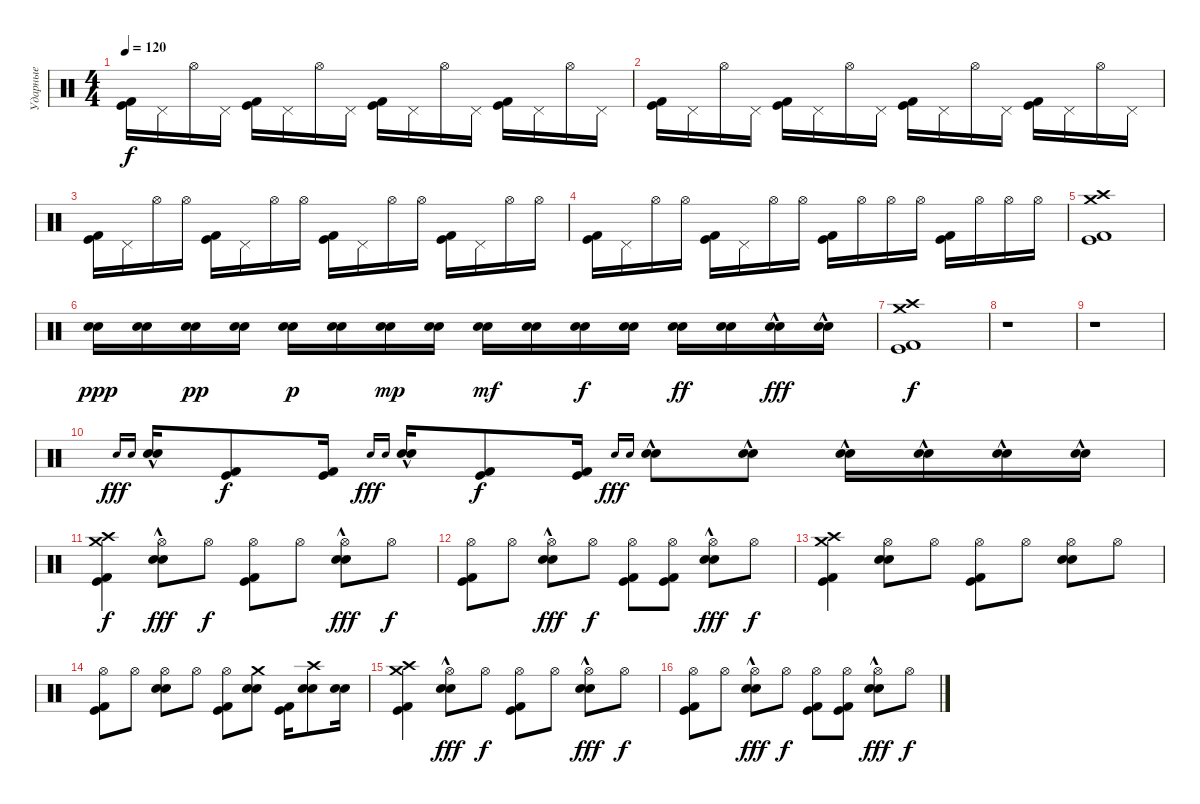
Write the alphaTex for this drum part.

\track ("Ударные" "Ударные") {instrument percussion}
\staff {score}
\articulation defaults
\ts (4 4)
\tempo 120
\clef neutral
\ks c
("Kick (hit)" "Kick (hit) 2").16{dy f} "Pedal Hi-Hat (hit)".16 "Hi-Hat (open)".16 "Pedal Hi-Hat (hit)".16 ("Kick (hit)" "Kick (hit) 2").16 "Pedal Hi-Hat (hit)".16 "Hi-Hat (open)".16 "Pedal Hi-Hat (hit)".16 ("Kick (hit)" "Kick (hit) 2").16 "Pedal Hi-Hat (hit)".16 "Hi-Hat (open)".16 "Pedal Hi-Hat (hit)".16 ("Kick (hit)" "Kick (hit) 2").16 "Pedal Hi-Hat (hit)".16 "Hi-Hat (open)".16 "Pedal Hi-Hat (hit)".16 |
("Kick (hit)" "Kick (hit) 2").16 "Pedal Hi-Hat (hit)".16 "Hi-Hat (open)".16 "Pedal Hi-Hat (hit)".16 ("Kick (hit)" "Kick (hit) 2").16 "Pedal Hi-Hat (hit)".16 "Hi-Hat (open)".16 "Pedal Hi-Hat (hit)".16 ("Kick (hit)" "Kick (hit) 2").16 "Pedal Hi-Hat (hit)".16 "Hi-Hat (open)".16 "Pedal Hi-Hat (hit)".16 ("Kick (hit)" "Kick (hit) 2").16 "Pedal Hi-Hat (hit)".16 "Hi-Hat (open)".16 "Pedal Hi-Hat (hit)".16 |
("Kick (hit)" "Kick (hit) 2").16 "Pedal Hi-Hat (hit)".16 "Hi-Hat (open)".16 "Hi-Hat (open)".16 ("Kick (hit)" "Kick (hit) 2").16 "Pedal Hi-Hat (hit)".16 "Hi-Hat (open)".16 "Hi-Hat (open)".16 ("Kick (hit)" "Kick (hit) 2").16 "Pedal Hi-Hat (hit)".16 "Hi-Hat (open)".16 "Hi-Hat (open)".16 ("Kick (hit)" "Kick (hit) 2").16 "Pedal Hi-Hat (hit)".16 "Hi-Hat (open)".16 "Hi-Hat (open)".16 |
("Kick (hit)" "Kick (hit) 2").16 "Pedal Hi-Hat (hit)".16 "Hi-Hat (open)".16 "Hi-Hat (open)".16 ("Kick (hit)" "Kick (hit) 2").16 "Pedal Hi-Hat (hit)".16 "Hi-Hat (open)".16 "Hi-Hat (open)".16 ("Kick (hit)" "Kick (hit) 2").16 "Hi-Hat (open)".16 "Hi-Hat (open)".16 "Hi-Hat (open)".16 ("Kick (hit)" "Kick (hit) 2").16 "Hi-Hat (open)".16 "Hi-Hat (open)".16 "Hi-Hat (open)".16 |
("Crash high (hit)" "Kick (hit)" "Kick (hit) 2" "Crash medium (hit)").1 |
("Snare (hit) 2" "Electric Snare (hit)").16{dy ppp} ("Snare (hit) 2" "Electric Snare (hit)").16 ("Snare (hit) 2" "Electric Snare (hit)").16{dy pp} ("Snare (hit) 2" "Electric Snare (hit)").16 ("Snare (hit) 2" "Electric Snare (hit)").16{dy p} ("Snare (hit) 2" "Electric Snare (hit)").16 ("Snare (hit) 2" "Electric Snare (hit)").16{dy mp} ("Snare (hit) 2" "Electric Snare (hit)").16 ("Snare (hit) 2" "Electric Snare (hit)").16{dy mf} ("Snare (hit) 2" "Electric Snare (hit)").16 ("Snare (hit) 2" "Electric Snare (hit)").16{dy f} ("Snare (hit) 2" "Electric Snare (hit)").16 ("Snare (hit) 2" "Electric Snare (hit)").16{dy ff} ("Snare (hit) 2" "Electric Snare (hit)").16 ("Snare (hit) 2"{hac} "Electric Snare (hit)"{hac}).16{dy fff} ("Snare (hit) 2"{hac} "Electric Snare (hit)"{hac}).16 |
("Crash high (hit)" "Kick (hit)" "Kick (hit) 2" "Crash medium (hit)").1{dy f} |
r.1 |
r.1 |
"Snare (hit) 2".16{gr onbeat dy fff} "Electric Snare (hit)".16{gr onbeat} ("Snare (hit) 2"{hac} "Electric Snare (hit)"{hac}).16 ("Kick (hit)" "Kick (hit) 2").8{dy f} ("Kick (hit)" "Kick (hit) 2").16 "Snare (hit) 2".16{gr onbeat dy fff} "Electric Snare (hit)".16{gr onbeat} ("Snare (hit) 2"{hac} "Electric Snare (hit)"{hac}).16 ("Kick (hit)" "Kick (hit) 2").8{dy f} ("Kick (hit)" "Kick (hit) 2").16 "Snare (hit) 2".16{gr onbeat dy fff} "Electric Snare (hit)".16{gr onbeat} ("Snare (hit) 2"{hac} "Electric Snare (hit)"{hac}).8 ("Snare (hit) 2"{hac} "Electric Snare (hit)"{hac}).8 ("Snare (hit) 2"{hac} "Electric Snare (hit)"{hac}).16 ("Snare (hit) 2"{hac} "Electric Snare (hit)"{hac}).16 ("Snare (hit) 2"{hac} "Electric Snare (hit)"{hac}).16 ("Snare (hit) 2"{hac} "Electric Snare (hit)"{hac}).16 |
("Crash high (hit)" "Kick (hit)" "Kick (hit) 2" "Crash medium (hit)").4{dy f} ("Hi-Hat (open)" "Snare (hit) 2"{hac} "Electric Snare (hit)"{hac}).8{dy fff} "Hi-Hat (open)".8{dy f} ("Hi-Hat (open)" "Kick (hit)" "Kick (hit) 2").8 "Hi-Hat (open)".8 ("Hi-Hat (open)" "Snare (hit) 2"{hac} "Electric Snare (hit)"{hac}).8{dy fff} "Hi-Hat (open)".8{dy f} |
("Hi-Hat (open)" "Kick (hit)" "Kick (hit) 2").8 "Hi-Hat (open)".8 ("Hi-Hat (open)" "Snare (hit) 2"{hac} "Electric Snare (hit)"{hac}).8{dy fff} "Hi-Hat (open)".8{dy f} ("Hi-Hat (open)" "Kick (hit)" "Kick (hit) 2").8 ("Hi-Hat (open)" "Kick (hit)" "Kick (hit) 2").8 ("Hi-Hat (open)" "Snare (hit) 2"{hac} "Electric Snare (hit)"{hac}).8{dy fff} "Hi-Hat (open)".8{dy f} |
("Crash high (hit)" "Kick (hit)" "Kick (hit) 2" "Crash medium (hit)").4 ("Hi-Hat (open)" "Snare (hit) 2" "Electric Snare (hit)").8 "Hi-Hat (open)".8 ("Hi-Hat (open)" "Kick (hit)" "Kick (hit) 2").8 "Hi-Hat (open)".8 ("Hi-Hat (open)" "Snare (hit) 2" "Electric Snare (hit)").8 "Hi-Hat (open)".8 |
("Hi-Hat (open)" "Kick (hit)" "Kick (hit) 2").8 "Hi-Hat (open)".8 ("Hi-Hat (open)" "Snare (hit) 2" "Electric Snare (hit)").8 "Hi-Hat (open)".8 ("Hi-Hat (open)" "Kick (hit)" "Kick (hit) 2").8 ("Crash medium (hit)" "Snare (hit) 2" "Electric Snare (hit)").8 ("Kick (hit)" "Kick (hit) 2").16 ("Crash high (hit)" "Snare (hit) 2" "Electric Snare (hit)").8 ("Snare (hit) 2" "Electric Snare (hit)").16 |
("Crash high (hit)" "Kick (hit)" "Kick (hit) 2" "Crash medium (hit)").4 ("Hi-Hat (open)" "Snare (hit) 2"{hac} "Electric Snare (hit)"{hac}).8{dy fff} "Hi-Hat (open)".8{dy f} ("Hi-Hat (open)" "Kick (hit)" "Kick (hit) 2").8 "Hi-Hat (open)".8 ("Hi-Hat (open)" "Snare (hit) 2"{hac} "Electric Snare (hit)"{hac}).8{dy fff} "Hi-Hat (open)".8{dy f} |
("Hi-Hat (open)" "Kick (hit)" "Kick (hit) 2").8 "Hi-Hat (open)".8 ("Hi-Hat (open)" "Snare (hit) 2"{hac} "Electric Snare (hit)"{hac}).8{dy fff} "Hi-Hat (open)".8{dy f} ("Hi-Hat (open)" "Kick (hit)" "Kick (hit) 2").8 ("Hi-Hat (open)" "Kick (hit)" "Kick (hit) 2").8 ("Hi-Hat (open)" "Snare (hit) 2"{hac} "Electric Snare (hit)"{hac}).8{dy fff} "Hi-Hat (open)".8{dy f}
